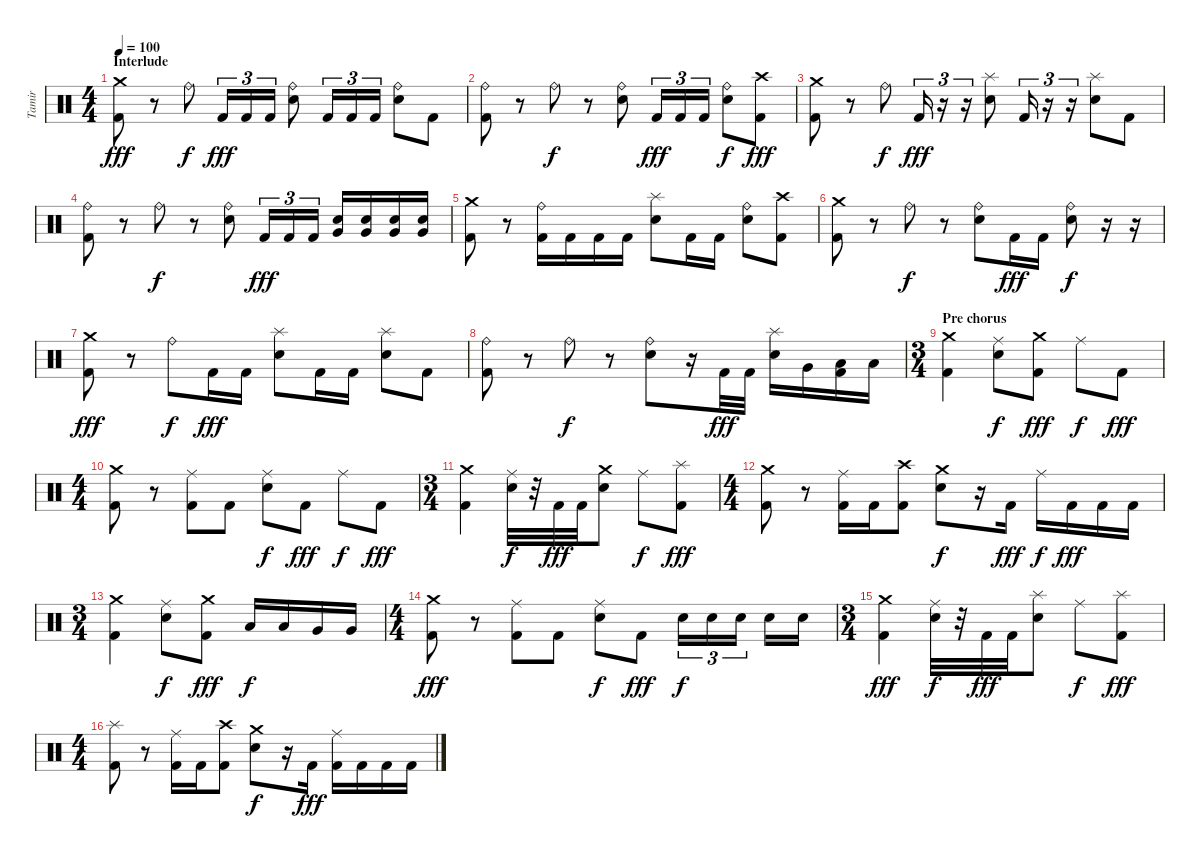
\track ("Tamir" "Tamir") {instrument percussion}
\staff {score}
\articulation defaults
\ts (4 4)
\section ("" "Interlude")
\tempo 100
\clef neutral
\ks c
("Crash medium (hit)" "Kick (hit) 2").8{dy fff} r.8 "Ride (bell)".8{dy f} "Kick (hit) 2".16{tu (3 2) dy fff} "Kick (hit) 2".16{tu (3 2)} "Kick (hit) 2".16{tu (3 2)} ("Ride (bell)" "Electric Snare (hit)").8 "Kick (hit) 2".16{tu (3 2)} "Kick (hit) 2".16{tu (3 2)} "Kick (hit) 2".16{tu (3 2)} ("Ride (bell)" "Electric Snare (hit)").8 "Kick (hit) 2".8 |
("Ride (bell)" "Kick (hit) 2").8 r.8 "Ride (bell)".8{dy f} r.8 ("Ride (bell)" "Electric Snare (hit)").8 "Kick (hit) 2".16{tu (3 2) dy fff} "Kick (hit) 2".16{tu (3 2)} "Kick (hit) 2".16{tu (3 2)} ("Ride (bell)" "Electric Snare (hit)").8{dy f} ("Crash high (hit)" "Kick (hit) 2").8{dy fff} |
("Crash medium (hit)" "Kick (hit) 2").8 r.8 "Ride (bell)".8{dy f} "Kick (hit) 2".16{tu (3 2) dy fff} r.16{tu (3 2)} r.16{tu (3 2)} ("Splash (hit)" "Electric Snare (hit)").8 "Kick (hit) 2".16{tu (3 2)} r.16{tu (3 2)} r.16{tu (3 2)} ("Splash (hit)" "Electric Snare (hit)").8 "Kick (hit) 2".8 |
("Ride (bell)" "Kick (hit) 2").8 r.8 "Ride (bell)".8{dy f} r.8 ("Ride (bell)" "Electric Snare (hit)").8 "Kick (hit) 2".16{tu (3 2) dy fff} "Kick (hit) 2".16{tu (3 2)} "Kick (hit) 2".16{tu (3 2)} ("Very Low Tom (hit)" "Electric Snare (hit)").16 ("Very Low Tom (hit)" "Electric Snare (hit)").16 ("Very Low Tom (hit)" "Electric Snare (hit)").16 ("Very Low Tom (hit)" "Electric Snare (hit)").16 |
("Crash medium (hit)" "Kick (hit) 2").8 r.8 ("Ride (bell)" "Kick (hit) 2").16 "Kick (hit) 2".16 "Kick (hit) 2".16 "Kick (hit) 2".16 ("Splash (hit)" "Electric Snare (hit)").8 "Kick (hit) 2".16 "Kick (hit) 2".16 ("Ride (bell)" "Electric Snare (hit)").8 ("Crash high (hit)" "Kick (hit) 2").8 |
("Crash medium (hit)" "Kick (hit) 2").8 r.8 "Ride (bell)".8{dy f} r.8 ("Ride (bell)" "Electric Snare (hit)").8 "Kick (hit) 2".16{dy fff} "Kick (hit) 2".16 ("Ride (bell)" "Electric Snare (hit)").8{dy f} r.16 r.16 |
("Crash medium (hit)" "Kick (hit) 2").8{dy fff} r.8 "Ride (bell)".8{dy f} "Kick (hit) 2".16{dy fff} "Kick (hit) 2".16 ("Splash (hit)" "Electric Snare (hit)").8 "Kick (hit) 2".16 "Kick (hit) 2".16 ("Splash (hit)" "Electric Snare (hit)").8 "Kick (hit) 2".8 |
("Ride (bell)" "Kick (hit) 2").8 r.8 "Ride (bell)".8{dy f} r.8 ("Ride (bell)" "Electric Snare (hit)").8 r.16 "Kick (hit) 2".32{dy fff} "Kick (hit) 2".32 ("Splash (hit)" "Electric Snare (hit)").16 "Very Low Tom (hit)".16 ("Low Floor Tom (hit)" "Kick (hit) 2").16 "Low Floor Tom (hit)".16 |
\ts (3 4)
\section ("" "Pre chorus")
("Crash medium (hit)" "Kick (hit) 2").4 ("Ride (middle)" "Electric Snare (hit)").8{dy f} ("Crash medium (hit)" "Kick (hit) 2").8{dy fff} "Ride (middle)".8{dy f} "Kick (hit) 2".8{dy fff} |
\ts (4 4)
("Crash medium (hit)" "Kick (hit) 2").8 r.8 ("Ride (middle)" "Kick (hit) 2").8 "Kick (hit) 2".8 ("Ride (middle)" "Electric Snare (hit)").8{dy f} "Kick (hit) 2".8{dy fff} "Ride (middle)".8{dy f} "Kick (hit) 2".8{dy fff} |
\ts (3 4)
("Crash medium (hit)" "Kick (hit) 2").4 ("Ride (middle)" "Electric Snare (hit)").32{dy f} r.32 "Kick (hit) 2".32{dy fff} "Kick (hit) 2".32 ("Crash medium (hit)" "Electric Snare (hit)").8 "Ride (middle)".8{dy f} ("Splash (hit)" "Kick (hit) 2").8{dy fff} |
\ts (4 4)
("Crash medium (hit)" "Kick (hit) 2").8 r.8 ("Ride (middle)" "Kick (hit) 2").16 "Kick (hit) 2".16 ("Crash high (hit)" "Kick (hit) 2").8 ("Crash medium (hit)" "Electric Snare (hit)").8{dy f} r.16 "Kick (hit) 2".16{dy fff} "Ride (middle)".16{dy f} "Kick (hit) 2".16{dy fff} "Kick (hit) 2".16 "Kick (hit) 2".16 |
\ts (3 4)
("Crash medium (hit)" "Kick (hit) 2").4 ("Ride (middle)" "Electric Snare (hit)").8{dy f} ("Crash medium (hit)" "Kick (hit) 2").8{dy fff} "Low Tom (hit)".16{dy f} "Low Tom (hit)".16 "Very Low Tom (hit)".16 "Very Low Tom (hit)".16 |
\ts (4 4)
("Crash medium (hit)" "Kick (hit) 2").8{dy fff} r.8 ("Ride (middle)" "Kick (hit) 2").8 "Kick (hit) 2".8 ("Ride (middle)" "Electric Snare (hit)").8{dy f} "Kick (hit) 2".8{dy fff} "Electric Snare (hit)".16{tu (3 2) dy f} "Electric Snare (hit)".16{tu (3 2)} "Electric Snare (hit)".16{tu (3 2)} "Electric Snare (hit)".16 "Electric Snare (hit)".16 |
\ts (3 4)
("Crash medium (hit)" "Kick (hit) 2").4{dy fff} ("Ride (middle)" "Electric Snare (hit)").32{dy f} r.32 "Kick (hit) 2".32{dy fff} "Kick (hit) 2".32 ("Splash (hit)" "Electric Snare (hit)").8 "Ride (middle)".8{dy f} ("Splash (hit)" "Kick (hit) 2").8{dy fff} |
\ts (4 4)
("Splash (hit)" "Kick (hit) 2").8 r.8 ("Ride (middle)" "Kick (hit) 2").16 "Kick (hit) 2".16 ("Crash high (hit)" "Kick (hit) 2").8 ("Crash medium (hit)" "Electric Snare (hit)").8{dy f} r.16 "Kick (hit) 2".16{dy fff} ("Ride (middle)" "Kick (hit) 2").16 "Kick (hit) 2".16 "Kick (hit) 2".16 "Kick (hit) 2".16
